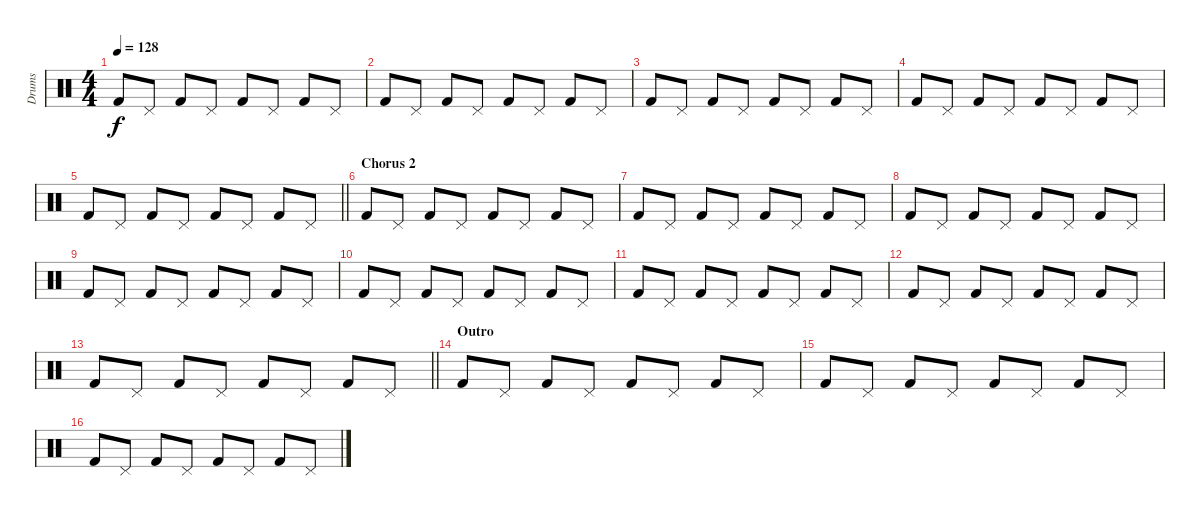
\track ("Drums" "Drums") {instrument percussion}
\staff {score}
\articulation defaults
\ts (4 4)
\tempo 128
\clef neutral
\ks c "Kick (hit) 2".8{dy f} "Pedal Hi-Hat (hit)".8 "Kick (hit) 2".8 "Pedal Hi-Hat (hit)".8 "Kick (hit) 2".8 "Pedal Hi-Hat (hit)".8 "Kick (hit) 2".8 "Pedal Hi-Hat (hit)".8
|
"Kick (hit) 2".8 "Pedal Hi-Hat (hit)".8 "Kick (hit) 2".8 "Pedal Hi-Hat (hit)".8 "Kick (hit) 2".8 "Pedal Hi-Hat (hit)".8 "Kick (hit) 2".8 "Pedal Hi-Hat (hit)".8 |
"Kick (hit) 2".8 "Pedal Hi-Hat (hit)".8 "Kick (hit) 2".8 "Pedal Hi-Hat (hit)".8 "Kick (hit) 2".8 "Pedal Hi-Hat (hit)".8 "Kick (hit) 2".8 "Pedal Hi-Hat (hit)".8 |
"Kick (hit) 2".8 "Pedal Hi-Hat (hit)".8 "Kick (hit) 2".8 "Pedal Hi-Hat (hit)".8 "Kick (hit) 2".8 "Pedal Hi-Hat (hit)".8 "Kick (hit) 2".8 "Pedal Hi-Hat (hit)".8 |
\barLineRight lightlight "Kick (hit) 2".8 "Pedal Hi-Hat (hit)".8 "Kick (hit) 2".8 "Pedal Hi-Hat (hit)".8 "Kick (hit) 2".8 "Pedal Hi-Hat (hit)".8 "Kick (hit) 2".8 "Pedal Hi-Hat (hit)".8
|
\section ("" "Chorus 2")
"Kick (hit) 2".8 "Pedal Hi-Hat (hit)".8 "Kick (hit) 2".8 "Pedal Hi-Hat (hit)".8 "Kick (hit) 2".8 "Pedal Hi-Hat (hit)".8 "Kick (hit) 2".8 "Pedal Hi-Hat (hit)".8 |
"Kick (hit) 2".8 "Pedal Hi-Hat (hit)".8 "Kick (hit) 2".8 "Pedal Hi-Hat (hit)".8 "Kick (hit) 2".8 "Pedal Hi-Hat (hit)".8 "Kick (hit) 2".8 "Pedal Hi-Hat (hit)".8 |
"Kick (hit) 2".8 "Pedal Hi-Hat (hit)".8 "Kick (hit) 2".8 "Pedal Hi-Hat (hit)".8 "Kick (hit) 2".8 "Pedal Hi-Hat (hit)".8 "Kick (hit) 2".8 "Pedal Hi-Hat (hit)".8 |
"Kick (hit) 2".8 "Pedal Hi-Hat (hit)".8 "Kick (hit) 2".8 "Pedal Hi-Hat (hit)".8 "Kick (hit) 2".8 "Pedal Hi-Hat (hit)".8 "Kick (hit) 2".8 "Pedal Hi-Hat (hit)".8 |
"Kick (hit) 2".8 "Pedal Hi-Hat (hit)".8 "Kick (hit) 2".8 "Pedal Hi-Hat (hit)".8 "Kick (hit) 2".8 "Pedal Hi-Hat (hit)".8 "Kick (hit) 2".8 "Pedal Hi-Hat (hit)".8 |
"Kick (hit) 2".8 "Pedal Hi-Hat (hit)".8 "Kick (hit) 2".8 "Pedal Hi-Hat (hit)".8 "Kick (hit) 2".8 "Pedal Hi-Hat (hit)".8 "Kick (hit) 2".8 "Pedal Hi-Hat (hit)".8 |
"Kick (hit) 2".8 "Pedal Hi-Hat (hit)".8 "Kick (hit) 2".8 "Pedal Hi-Hat (hit)".8 "Kick (hit) 2".8 "Pedal Hi-Hat (hit)".8 "Kick (hit) 2".8 "Pedal Hi-Hat (hit)".8 |
\barLineRight lightlight "Kick (hit) 2".8 "Pedal Hi-Hat (hit)".8 "Kick (hit) 2".8 "Pedal Hi-Hat (hit)".8 "Kick (hit) 2".8 "Pedal Hi-Hat (hit)".8 "Kick (hit) 2".8 "Pedal Hi-Hat (hit)".8
|
\section ("" "Outro")
"Kick (hit) 2".8 "Pedal Hi-Hat (hit)".8 "Kick (hit) 2".8 "Pedal Hi-Hat (hit)".8 "Kick (hit) 2".8 "Pedal Hi-Hat (hit)".8 "Kick (hit) 2".8 "Pedal Hi-Hat (hit)".8 |
"Kick (hit) 2".8 "Pedal Hi-Hat (hit)".8 "Kick (hit) 2".8 "Pedal Hi-Hat (hit)".8 "Kick (hit) 2".8 "Pedal Hi-Hat (hit)".8 "Kick (hit) 2".8 "Pedal Hi-Hat (hit)".8 |
"Kick (hit) 2".8 "Pedal Hi-Hat (hit)".8 "Kick (hit) 2".8 "Pedal Hi-Hat (hit)".8 "Kick (hit) 2".8 "Pedal Hi-Hat (hit)".8 "Kick (hit) 2".8 "Pedal Hi-Hat (hit)".8
